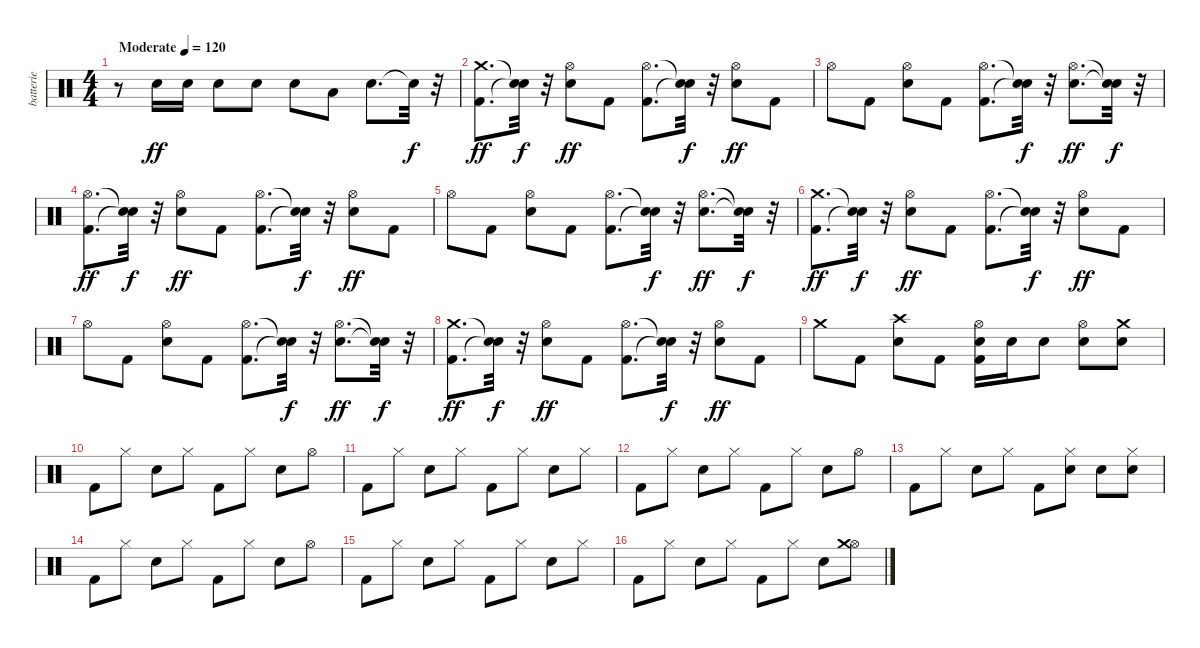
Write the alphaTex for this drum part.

\track ("batterie" "batterie") {instrument percussion}
\staff {score}
\articulation defaults
\ts (4 4)
\tempo (120 "Moderate")
\clef neutral
\ks c
r.8{dy ff} "Electric Snare (hit)".16 "Electric Snare (hit)".16 "Electric Snare (hit)".8 "Electric Snare (hit)".8 "Electric Snare (hit)".8 "Low Floor Tom (hit)".8 "Electric Snare (hit)".8{d} "Snare (hit)"{t}.32{dy f} r.32 |
("Kick (hit) 2" "Crash medium (hit)").8{d dy ff} ("Snare (hit)"{t} "Snare (hit)"{t}).32{dy f} r.32 ("Electric Snare (hit)" "Hi-Hat (open)").8{dy ff} "Kick (hit) 2".8 ("Kick (hit) 2" "Hi-Hat (open)").8{d} ("Snare (hit)"{t} "Snare (hit)"{t}).32{dy f} r.32 ("Electric Snare (hit)" "Hi-Hat (open)").8{dy ff} "Kick (hit) 2".8 |
"Hi-Hat (open)".8 "Kick (hit) 2".8 ("Electric Snare (hit)" "Hi-Hat (open)").8 "Kick (hit) 2".8 ("Kick (hit) 2" "Hi-Hat (open)").8{d} ("Snare (hit)"{t} "Snare (hit)"{t}).32{dy f} r.32 ("Electric Snare (hit)" "Hi-Hat (open)").8{d dy ff} ("Snare (hit)"{t} "Snare (hit)"{t}).32{dy f} r.32 |
("Kick (hit) 2" "Hi-Hat (open)").8{d dy ff} ("Snare (hit)"{t} "Snare (hit)"{t}).32{dy f} r.32 ("Electric Snare (hit)" "Hi-Hat (open)").8{dy ff} "Kick (hit) 2".8 ("Kick (hit) 2" "Hi-Hat (open)").8{d} ("Snare (hit)"{t} "Snare (hit)"{t}).32{dy f} r.32 ("Electric Snare (hit)" "Hi-Hat (open)").8{dy ff} "Kick (hit) 2".8 |
"Hi-Hat (open)".8 "Kick (hit) 2".8 ("Electric Snare (hit)" "Hi-Hat (open)").8 "Kick (hit) 2".8 ("Kick (hit) 2" "Hi-Hat (open)").8{d} ("Snare (hit)"{t} "Snare (hit)"{t}).32{dy f} r.32 ("Electric Snare (hit)" "Hi-Hat (open)").8{d dy ff} ("Snare (hit)"{t} "Snare (hit)"{t}).32{dy f} r.32 |
("Kick (hit) 2" "Crash medium (hit)").8{d dy ff} ("Snare (hit)"{t} "Snare (hit)"{t}).32{dy f} r.32 ("Electric Snare (hit)" "Hi-Hat (open)").8{dy ff} "Kick (hit) 2".8 ("Kick (hit) 2" "Hi-Hat (open)").8{d} ("Snare (hit)"{t} "Snare (hit)"{t}).32{dy f} r.32 ("Electric Snare (hit)" "Hi-Hat (open)").8{dy ff} "Kick (hit) 2".8 |
"Hi-Hat (open)".8 "Kick (hit) 2".8 ("Electric Snare (hit)" "Hi-Hat (open)").8 "Kick (hit) 2".8 ("Kick (hit) 2" "Hi-Hat (open)").8{d} ("Snare (hit)"{t} "Snare (hit)"{t}).32{dy f} r.32 ("Electric Snare (hit)" "Hi-Hat (open)").8{d dy ff} ("Snare (hit)"{t} "Snare (hit)"{t}).32{dy f} r.32 |
("Kick (hit) 2" "Crash medium (hit)").8{d dy ff} ("Snare (hit)"{t} "Snare (hit)"{t}).32{dy f} r.32 ("Electric Snare (hit)" "Hi-Hat (open)").8{dy ff} "Kick (hit) 2".8 ("Kick (hit) 2" "Hi-Hat (open)").8{d} ("Snare (hit)"{t} "Snare (hit)"{t}).32{dy f} r.32 ("Electric Snare (hit)" "Hi-Hat (open)").8{dy ff} "Kick (hit) 2".8 |
"Crash medium (hit)".8 "Kick (hit) 2".8 ("Electric Snare (hit)" "Crash high (hit)").8 "Kick (hit) 2".8 ("Kick (hit) 2" "Electric Snare (hit)" "Hi-Hat (open)").16 "Electric Snare (hit)".16 "Electric Snare (hit)".8 ("Electric Snare (hit)" "Hi-Hat (open)").8 ("Electric Snare (hit)" "Crash medium (hit)").8 |
"Kick (hit) 2".8 "Hi-Hat (closed)".8 "Electric Snare (hit)".8 "Hi-Hat (closed)".8 "Kick (hit) 2".8 "Hi-Hat (closed)".8 "Electric Snare (hit)".8 "Hi-Hat (open)".8 |
"Kick (hit) 2".8 "Hi-Hat (closed)".8 "Electric Snare (hit)".8 "Hi-Hat (closed)".8 "Kick (hit) 2".8 "Hi-Hat (closed)".8 "Electric Snare (hit)".8 "Hi-Hat (closed)".8 |
"Kick (hit) 2".8 "Hi-Hat (closed)".8 "Electric Snare (hit)".8 "Hi-Hat (closed)".8 "Kick (hit) 2".8 "Hi-Hat (closed)".8 "Electric Snare (hit)".8 "Hi-Hat (open)".8 |
"Kick (hit) 2".8 "Hi-Hat (closed)".8 "Electric Snare (hit)".8 "Hi-Hat (closed)".8 "Kick (hit) 2".8 ("Electric Snare (hit)" "Hi-Hat (closed)").8 "Electric Snare (hit)".8 ("Electric Snare (hit)" "Hi-Hat (closed)").8 |
"Kick (hit) 2".8 "Hi-Hat (closed)".8 "Electric Snare (hit)".8 "Hi-Hat (closed)".8 "Kick (hit) 2".8 "Hi-Hat (closed)".8 "Electric Snare (hit)".8 "Hi-Hat (open)".8 |
"Kick (hit) 2".8 "Hi-Hat (closed)".8 "Electric Snare (hit)".8 "Hi-Hat (closed)".8 "Kick (hit) 2".8 "Hi-Hat (closed)".8 "Electric Snare (hit)".8 "Hi-Hat (closed)".8 |
"Kick (hit) 2".8 "Hi-Hat (closed)".8 "Electric Snare (hit)".8 "Hi-Hat (closed)".8 "Kick (hit) 2".8 "Hi-Hat (closed)".8 "Electric Snare (hit)".8 ("Hi-Hat (open)" "Crash medium (hit)").8
